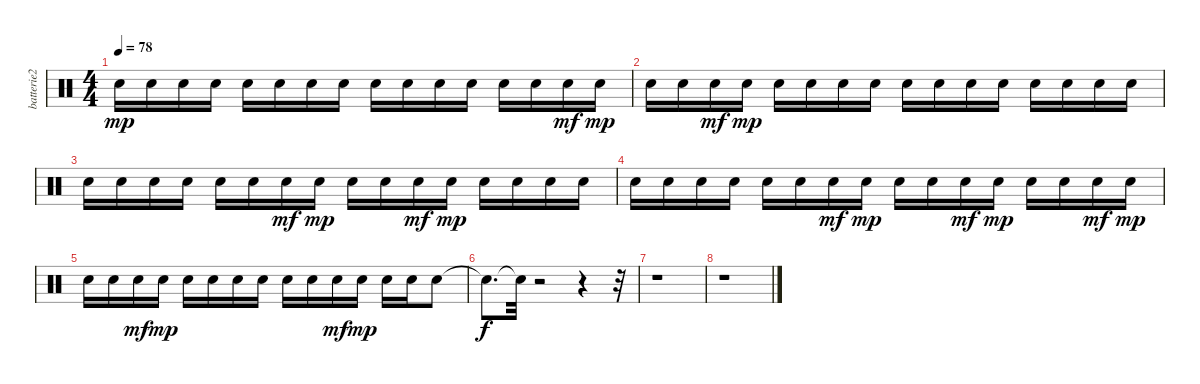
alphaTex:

\track ("batterie2" "batterie2") {instrument percussion}
\staff {score}
\articulation defaults
\ts (4 4)
\tempo 78
\clef neutral
\ks c "Snare (hit) 2".16{dy mp} "Snare (hit) 2".16 "Snare (hit) 2".16 "Snare (hit) 2".16 "Snare (hit) 2".16 "Snare (hit) 2".16 "Snare (hit) 2".16 "Snare (hit) 2".16 "Snare (hit) 2".16 "Snare (hit) 2".16 "Snare (hit) 2".16 "Snare (hit) 2".16 "Snare (hit) 2".16 "Snare (hit) 2".16 "Snare (hit) 2".16{dy mf} "Snare (hit) 2".16{dy mp}
|
"Snare (hit) 2".16 "Snare (hit) 2".16 "Snare (hit) 2".16{dy mf} "Snare (hit) 2".16{dy mp} "Snare (hit) 2".16 "Snare (hit) 2".16 "Snare (hit) 2".16 "Snare (hit) 2".16 "Snare (hit) 2".16 "Snare (hit) 2".16 "Snare (hit) 2".16 "Snare (hit) 2".16 "Snare (hit) 2".16 "Snare (hit) 2".16 "Snare (hit) 2".16 "Snare (hit) 2".16 |
"Snare (hit) 2".16 "Snare (hit) 2".16 "Snare (hit) 2".16 "Snare (hit) 2".16 "Snare (hit) 2".16 "Snare (hit) 2".16 "Snare (hit) 2".16{dy mf} "Snare (hit) 2".16{dy mp} "Snare (hit) 2".16 "Snare (hit) 2".16 "Snare (hit) 2".16{dy mf} "Snare (hit) 2".16{dy mp} "Snare (hit) 2".16 "Snare (hit) 2".16 "Snare (hit) 2".16 "Snare (hit) 2".16 |
"Snare (hit) 2".16 "Snare (hit) 2".16 "Snare (hit) 2".16 "Snare (hit) 2".16 "Snare (hit) 2".16 "Snare (hit) 2".16 "Snare (hit) 2".16{dy mf} "Snare (hit) 2".16{dy mp} "Snare (hit) 2".16 "Snare (hit) 2".16 "Snare (hit) 2".16{dy mf} "Snare (hit) 2".16{dy mp} "Snare (hit) 2".16 "Snare (hit) 2".16 "Snare (hit) 2".16{dy mf} "Snare (hit) 2".16{dy mp} |
"Snare (hit) 2".16 "Snare (hit) 2".16 "Snare (hit) 2".16{dy mf} "Snare (hit) 2".16{dy mp} "Snare (hit) 2".16 "Snare (hit) 2".16 "Snare (hit) 2".16 "Snare (hit) 2".16 "Snare (hit) 2".16 "Snare (hit) 2".16 "Snare (hit) 2".16{dy mf} "Snare (hit) 2".16{dy mp} "Snare (hit) 2".16 "Snare (hit) 2".16 "Snare (hit) 2".8 |
"Snare (hit)"{t}.8{d dy f} "Snare (hit)"{t}.32 r.2 r.4 r.32 |
r.1 |
r.1
